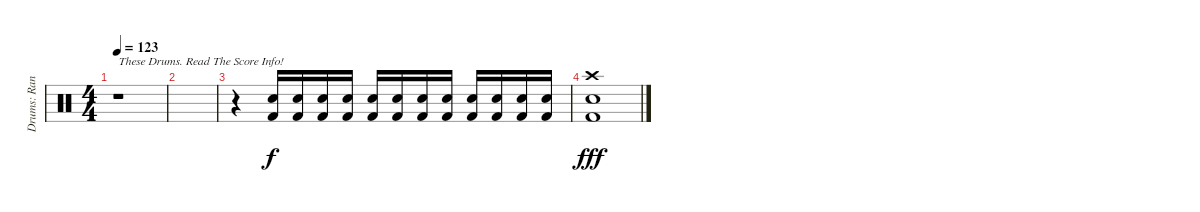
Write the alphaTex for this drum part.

\track ("Drums: Randy" "Drums: Ran") {instrument percussion}
\staff {score}
\articulation defaults
\ts (4 4)
\tempo 123
\clef neutral
\ks c
r.1{txt "These Drums. Read The Score Info!" dy f} |
|
r.4 ("Snare (hit) 2" "Kick (hit) 2").16 ("Snare (hit) 2" "Kick (hit) 2").16 ("Snare (hit) 2" "Kick (hit) 2").16 ("Snare (hit) 2" "Kick (hit) 2").16 ("Snare (hit) 2" "Kick (hit) 2").16 ("Snare (hit) 2" "Kick (hit) 2").16 ("Snare (hit) 2" "Kick (hit) 2").16 ("Snare (hit) 2" "Kick (hit) 2").16 ("Snare (hit) 2" "Kick (hit) 2").16 ("Snare (hit) 2" "Kick (hit) 2").16 ("Snare (hit) 2" "Kick (hit) 2").16 ("Snare (hit) 2" "Kick (hit) 2").16 |
("Crash high (hit)" "Snare (hit) 2" "Kick (hit) 2").1{dy fff}
